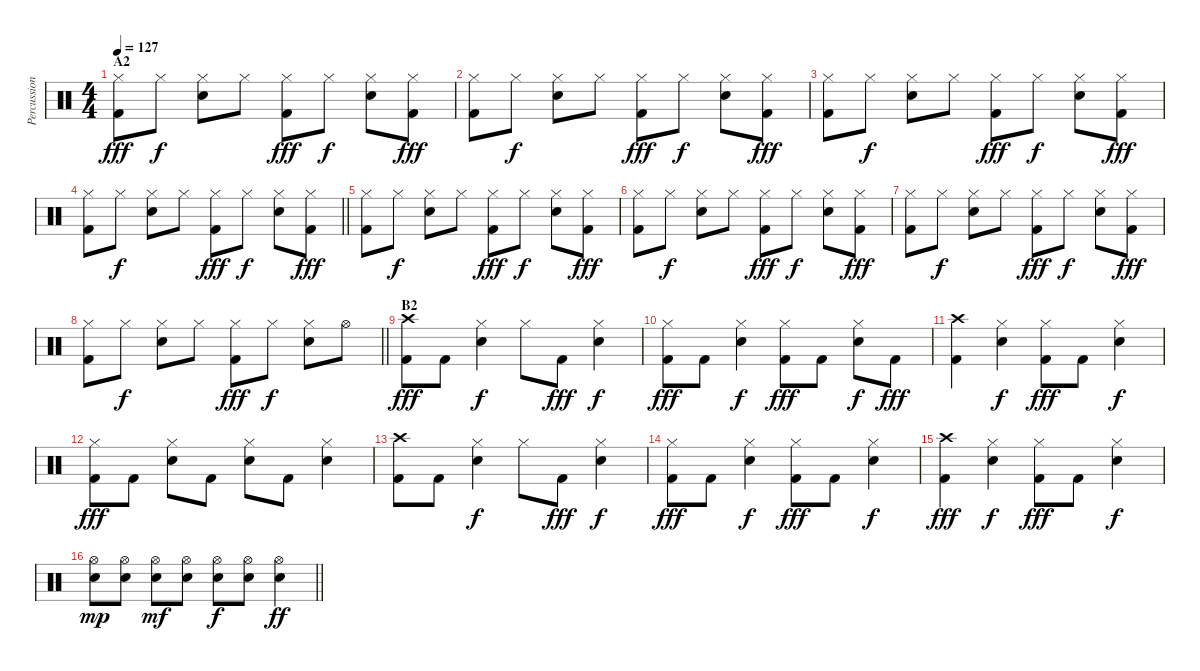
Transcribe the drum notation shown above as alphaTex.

\track ("Percussion" "Percussion") {instrument percussion}
\staff {score}
\articulation defaults
\ts (4 4)
\section ("" "A2")
\tempo 127
\clef neutral
\ks c
("Hi-Hat (closed)" "Kick (hit) 2").8{dy fff} "Hi-Hat (closed)".8{dy f} ("Hi-Hat (closed)" "Electric Snare (hit)").8 "Hi-Hat (closed)".8 ("Hi-Hat (closed)" "Kick (hit) 2").8{dy fff} "Hi-Hat (closed)".8{dy f} ("Hi-Hat (closed)" "Electric Snare (hit)").8 ("Hi-Hat (closed)" "Kick (hit) 2").8{dy fff} |
("Hi-Hat (closed)" "Kick (hit) 2").8 "Hi-Hat (closed)".8{dy f} ("Hi-Hat (closed)" "Electric Snare (hit)").8 "Hi-Hat (closed)".8 ("Hi-Hat (closed)" "Kick (hit) 2").8{dy fff} "Hi-Hat (closed)".8{dy f} ("Hi-Hat (closed)" "Electric Snare (hit)").8 ("Hi-Hat (closed)" "Kick (hit) 2").8{dy fff} |
("Hi-Hat (closed)" "Kick (hit) 2").8 "Hi-Hat (closed)".8{dy f} ("Hi-Hat (closed)" "Electric Snare (hit)").8 "Hi-Hat (closed)".8 ("Hi-Hat (closed)" "Kick (hit) 2").8{dy fff} "Hi-Hat (closed)".8{dy f} ("Hi-Hat (closed)" "Electric Snare (hit)").8 ("Hi-Hat (closed)" "Kick (hit) 2").8{dy fff} |
\barLineRight lightlight
("Hi-Hat (closed)" "Kick (hit) 2").8 "Hi-Hat (closed)".8{dy f} ("Hi-Hat (closed)" "Electric Snare (hit)").8 "Hi-Hat (closed)".8 ("Hi-Hat (closed)" "Kick (hit) 2").8{dy fff} "Hi-Hat (closed)".8{dy f} ("Hi-Hat (closed)" "Electric Snare (hit)").8 ("Hi-Hat (closed)" "Kick (hit) 2").8{dy fff} |
("Hi-Hat (closed)" "Kick (hit) 2").8 "Hi-Hat (closed)".8{dy f} ("Hi-Hat (closed)" "Electric Snare (hit)").8 "Hi-Hat (closed)".8 ("Hi-Hat (closed)" "Kick (hit) 2").8{dy fff} "Hi-Hat (closed)".8{dy f} ("Hi-Hat (closed)" "Electric Snare (hit)").8 ("Hi-Hat (closed)" "Kick (hit) 2").8{dy fff} |
("Hi-Hat (closed)" "Kick (hit) 2").8 "Hi-Hat (closed)".8{dy f} ("Hi-Hat (closed)" "Electric Snare (hit)").8 "Hi-Hat (closed)".8 ("Hi-Hat (closed)" "Kick (hit) 2").8{dy fff} "Hi-Hat (closed)".8{dy f} ("Hi-Hat (closed)" "Electric Snare (hit)").8 ("Hi-Hat (closed)" "Kick (hit) 2").8{dy fff} |
("Hi-Hat (closed)" "Kick (hit) 2").8 "Hi-Hat (closed)".8{dy f} ("Hi-Hat (closed)" "Electric Snare (hit)").8 "Hi-Hat (closed)".8 ("Hi-Hat (closed)" "Kick (hit) 2").8{dy fff} "Hi-Hat (closed)".8{dy f} ("Hi-Hat (closed)" "Electric Snare (hit)").8 ("Hi-Hat (closed)" "Kick (hit) 2").8{dy fff} |
\barLineRight lightlight
("Hi-Hat (closed)" "Kick (hit) 2").8 "Hi-Hat (closed)".8{dy f} ("Hi-Hat (closed)" "Electric Snare (hit)").8 "Hi-Hat (closed)".8 ("Hi-Hat (closed)" "Kick (hit) 2").8{dy fff} "Hi-Hat (closed)".8{dy f} ("Hi-Hat (closed)" "Electric Snare (hit)").8 "Hi-Hat (open)".8 |
\section ("" "B2")
("Crash high (hit)" "Kick (hit) 2").8{dy fff} "Kick (hit) 2".8 ("Hi-Hat (closed)" "Electric Snare (hit)").4{dy f} "Hi-Hat (closed)".8 "Kick (hit) 2".8{dy fff} ("Hi-Hat (closed)" "Electric Snare (hit)").4{dy f} |
("Hi-Hat (closed)" "Kick (hit) 2").8{dy fff} "Kick (hit) 2".8 ("Hi-Hat (closed)" "Electric Snare (hit)").4{dy f} ("Hi-Hat (closed)" "Kick (hit) 2").8{dy fff} "Kick (hit) 2".8 ("Hi-Hat (closed)" "Electric Snare (hit)").8{dy f} "Kick (hit) 2".8{dy fff} |
("Crash high (hit)" "Kick (hit) 2").4 ("Hi-Hat (closed)" "Electric Snare (hit)").4{dy f} ("Hi-Hat (closed)" "Kick (hit) 2").8{dy fff} "Kick (hit) 2".8 ("Hi-Hat (closed)" "Electric Snare (hit)").4{dy f} |
("Hi-Hat (closed)" "Kick (hit) 2").8{dy fff} "Kick (hit) 2".8 ("Hi-Hat (closed)" "Electric Snare (hit)").8 "Kick (hit) 2".8 ("Hi-Hat (closed)" "Electric Snare (hit)").8 "Kick (hit) 2".8 ("Hi-Hat (closed)" "Electric Snare (hit)").4 |
("Crash high (hit)" "Kick (hit) 2").8 "Kick (hit) 2".8 ("Hi-Hat (closed)" "Electric Snare (hit)").4{dy f} "Hi-Hat (closed)".8 "Kick (hit) 2".8{dy fff} ("Hi-Hat (closed)" "Electric Snare (hit)").4{dy f} |
("Hi-Hat (closed)" "Kick (hit) 2").8{dy fff} "Kick (hit) 2".8 ("Hi-Hat (closed)" "Electric Snare (hit)").4{dy f} ("Hi-Hat (closed)" "Kick (hit) 2").8{dy fff} "Kick (hit) 2".8 ("Hi-Hat (closed)" "Electric Snare (hit)").4{dy f} |
("Crash high (hit)" "Kick (hit) 2").4{dy fff} ("Hi-Hat (closed)" "Electric Snare (hit)").4{dy f} ("Hi-Hat (closed)" "Kick (hit) 2").8{dy fff} "Kick (hit) 2".8 ("Hi-Hat (closed)" "Electric Snare (hit)").4{dy f} |
\barLineRight lightlight
("Hi-Hat (open)" "Electric Snare (hit)").8{dy mp} ("Hi-Hat (open)" "Electric Snare (hit)").8 ("Hi-Hat (open)" "Electric Snare (hit)").8{dy mf} ("Hi-Hat (open)" "Electric Snare (hit)").8 ("Hi-Hat (open)" "Electric Snare (hit)").8{dy f} ("Hi-Hat (open)" "Electric Snare (hit)").8 ("Hi-Hat (open)" "Electric Snare (hit)").4{dy ff}
